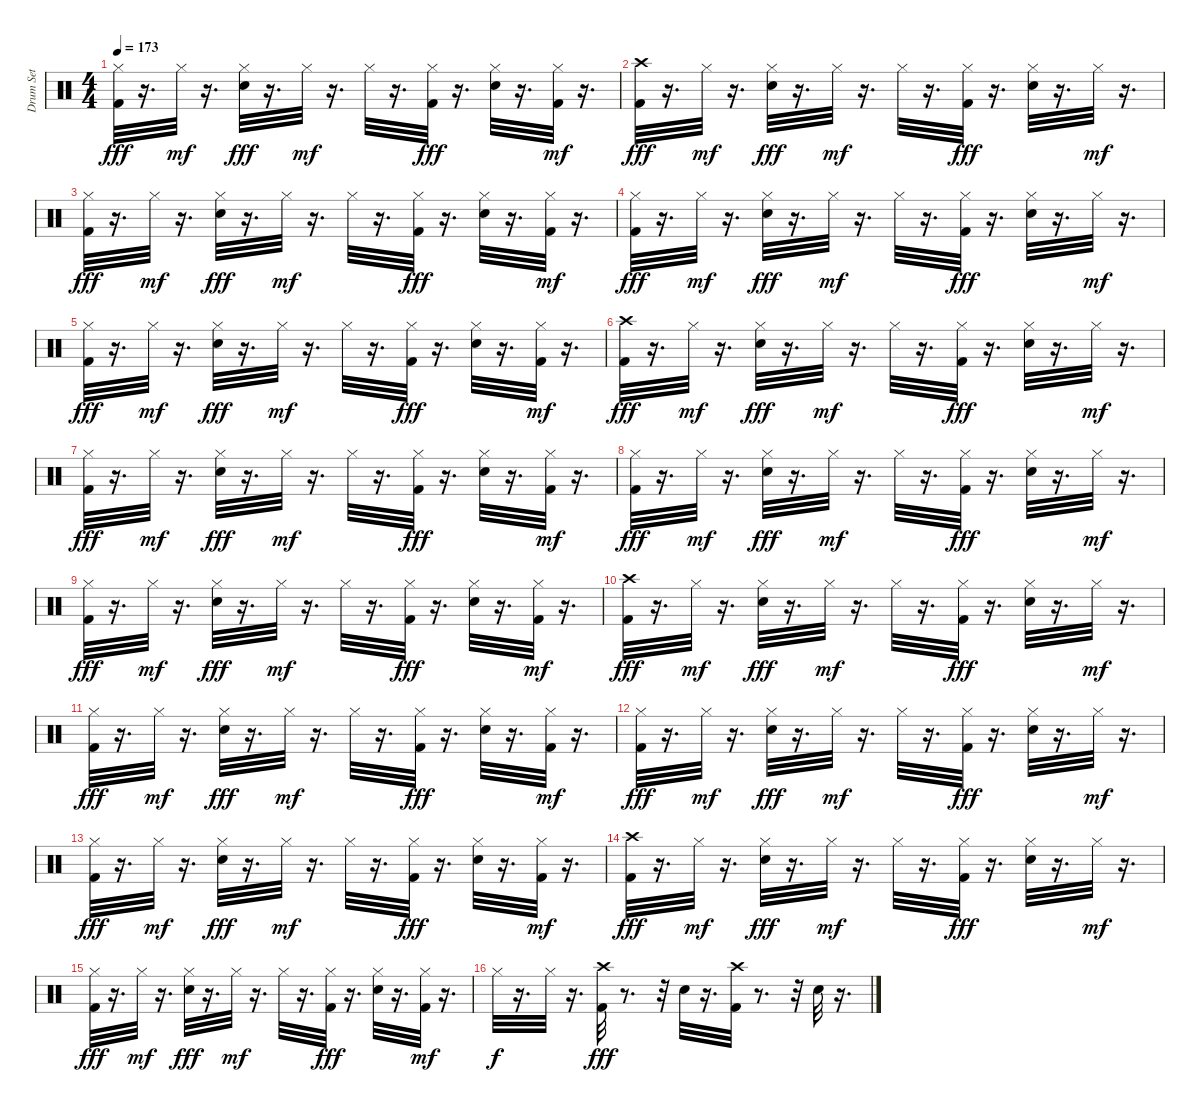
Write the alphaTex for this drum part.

\track ("Drum Set" "Drum Set") {instrument percussion}
\staff {score}
\articulation defaults
\ts (4 4)
\tempo 173
\clef neutral
\ks c
("Hi-Hat (closed)" "Kick (hit) 2").32{dy fff} r.16{d} "Hi-Hat (closed)".32{dy mf} r.16{d} ("Hi-Hat (closed)" "Electric Snare (hit)").32{dy fff} r.16{d} "Hi-Hat (closed)".32{dy mf} r.16{d} "Hi-Hat (closed)".32 r.16{d} ("Hi-Hat (closed)" "Kick (hit) 2").32{dy fff} r.16{d} ("Hi-Hat (closed)" "Electric Snare (hit)").32 r.16{d} ("Kick (hit) 2" "Hi-Hat (closed)").32{dy mf} r.16{d} |
("Crash high (hit)" "Kick (hit) 2").32{dy fff} r.16{d} "Hi-Hat (closed)".32{dy mf} r.16{d} ("Hi-Hat (closed)" "Electric Snare (hit)").32{dy fff} r.16{d} "Hi-Hat (closed)".32{dy mf} r.16{d} "Hi-Hat (closed)".32 r.16{d} ("Hi-Hat (closed)" "Kick (hit) 2").32{dy fff} r.16{d} ("Hi-Hat (closed)" "Electric Snare (hit)").32 r.16{d} "Hi-Hat (closed)".32{dy mf} r.16{d} |
("Hi-Hat (closed)" "Kick (hit) 2").32{dy fff} r.16{d} "Hi-Hat (closed)".32{dy mf} r.16{d} ("Hi-Hat (closed)" "Electric Snare (hit)").32{dy fff} r.16{d} "Hi-Hat (closed)".32{dy mf} r.16{d} "Hi-Hat (closed)".32 r.16{d} ("Hi-Hat (closed)" "Kick (hit) 2").32{dy fff} r.16{d} ("Hi-Hat (closed)" "Electric Snare (hit)").32 r.16{d} ("Kick (hit) 2" "Hi-Hat (closed)").32{dy mf} r.16{d} |
("Hi-Hat (closed)" "Kick (hit) 2").32{dy fff} r.16{d} "Hi-Hat (closed)".32{dy mf} r.16{d} ("Hi-Hat (closed)" "Electric Snare (hit)").32{dy fff} r.16{d} "Hi-Hat (closed)".32{dy mf} r.16{d} "Hi-Hat (closed)".32 r.16{d} ("Hi-Hat (closed)" "Kick (hit) 2").32{dy fff} r.16{d} ("Hi-Hat (closed)" "Electric Snare (hit)").32 r.16{d} "Hi-Hat (closed)".32{dy mf} r.16{d} |
("Hi-Hat (closed)" "Kick (hit) 2").32{dy fff} r.16{d} "Hi-Hat (closed)".32{dy mf} r.16{d} ("Hi-Hat (closed)" "Electric Snare (hit)").32{dy fff} r.16{d} "Hi-Hat (closed)".32{dy mf} r.16{d} "Hi-Hat (closed)".32 r.16{d} ("Hi-Hat (closed)" "Kick (hit) 2").32{dy fff} r.16{d} ("Hi-Hat (closed)" "Electric Snare (hit)").32 r.16{d} ("Kick (hit) 2" "Hi-Hat (closed)").32{dy mf} r.16{d} |
("Crash high (hit)" "Kick (hit) 2").32{dy fff} r.16{d} "Hi-Hat (closed)".32{dy mf} r.16{d} ("Hi-Hat (closed)" "Electric Snare (hit)").32{dy fff} r.16{d} "Hi-Hat (closed)".32{dy mf} r.16{d} "Hi-Hat (closed)".32 r.16{d} ("Hi-Hat (closed)" "Kick (hit) 2").32{dy fff} r.16{d} ("Hi-Hat (closed)" "Electric Snare (hit)").32 r.16{d} "Hi-Hat (closed)".32{dy mf} r.16{d} |
("Hi-Hat (closed)" "Kick (hit) 2").32{dy fff} r.16{d} "Hi-Hat (closed)".32{dy mf} r.16{d} ("Hi-Hat (closed)" "Electric Snare (hit)").32{dy fff} r.16{d} "Hi-Hat (closed)".32{dy mf} r.16{d} "Hi-Hat (closed)".32 r.16{d} ("Hi-Hat (closed)" "Kick (hit) 2").32{dy fff} r.16{d} ("Hi-Hat (closed)" "Electric Snare (hit)").32 r.16{d} ("Kick (hit) 2" "Hi-Hat (closed)").32{dy mf} r.16{d} |
("Hi-Hat (closed)" "Kick (hit) 2").32{dy fff} r.16{d} "Hi-Hat (closed)".32{dy mf} r.16{d} ("Hi-Hat (closed)" "Electric Snare (hit)").32{dy fff} r.16{d} "Hi-Hat (closed)".32{dy mf} r.16{d} "Hi-Hat (closed)".32 r.16{d} ("Hi-Hat (closed)" "Kick (hit) 2").32{dy fff} r.16{d} ("Hi-Hat (closed)" "Electric Snare (hit)").32 r.16{d} "Hi-Hat (closed)".32{dy mf} r.16{d} |
("Hi-Hat (closed)" "Kick (hit) 2").32{dy fff} r.16{d} "Hi-Hat (closed)".32{dy mf} r.16{d} ("Hi-Hat (closed)" "Electric Snare (hit)").32{dy fff} r.16{d} "Hi-Hat (closed)".32{dy mf} r.16{d} "Hi-Hat (closed)".32 r.16{d} ("Hi-Hat (closed)" "Kick (hit) 2").32{dy fff} r.16{d} ("Hi-Hat (closed)" "Electric Snare (hit)").32 r.16{d} ("Kick (hit) 2" "Hi-Hat (closed)").32{dy mf} r.16{d} |
("Crash high (hit)" "Kick (hit) 2").32{dy fff} r.16{d} "Hi-Hat (closed)".32{dy mf} r.16{d} ("Hi-Hat (closed)" "Electric Snare (hit)").32{dy fff} r.16{d} "Hi-Hat (closed)".32{dy mf} r.16{d} "Hi-Hat (closed)".32 r.16{d} ("Hi-Hat (closed)" "Kick (hit) 2").32{dy fff} r.16{d} ("Hi-Hat (closed)" "Electric Snare (hit)").32 r.16{d} "Hi-Hat (closed)".32{dy mf} r.16{d} |
("Hi-Hat (closed)" "Kick (hit) 2").32{dy fff} r.16{d} "Hi-Hat (closed)".32{dy mf} r.16{d} ("Hi-Hat (closed)" "Electric Snare (hit)").32{dy fff} r.16{d} "Hi-Hat (closed)".32{dy mf} r.16{d} "Hi-Hat (closed)".32 r.16{d} ("Hi-Hat (closed)" "Kick (hit) 2").32{dy fff} r.16{d} ("Hi-Hat (closed)" "Electric Snare (hit)").32 r.16{d} ("Kick (hit) 2" "Hi-Hat (closed)").32{dy mf} r.16{d} |
("Hi-Hat (closed)" "Kick (hit) 2").32{dy fff} r.16{d} "Hi-Hat (closed)".32{dy mf} r.16{d} ("Hi-Hat (closed)" "Electric Snare (hit)").32{dy fff} r.16{d} "Hi-Hat (closed)".32{dy mf} r.16{d} "Hi-Hat (closed)".32 r.16{d} ("Hi-Hat (closed)" "Kick (hit) 2").32{dy fff} r.16{d} ("Hi-Hat (closed)" "Electric Snare (hit)").32 r.16{d} "Hi-Hat (closed)".32{dy mf} r.16{d} |
("Hi-Hat (closed)" "Kick (hit) 2").32{dy fff} r.16{d} "Hi-Hat (closed)".32{dy mf} r.16{d} ("Hi-Hat (closed)" "Electric Snare (hit)").32{dy fff} r.16{d} "Hi-Hat (closed)".32{dy mf} r.16{d} "Hi-Hat (closed)".32 r.16{d} ("Hi-Hat (closed)" "Kick (hit) 2").32{dy fff} r.16{d} ("Hi-Hat (closed)" "Electric Snare (hit)").32 r.16{d} ("Kick (hit) 2" "Hi-Hat (closed)").32{dy mf} r.16{d} |
("Crash high (hit)" "Kick (hit) 2").32{dy fff} r.16{d} "Hi-Hat (closed)".32{dy mf} r.16{d} ("Hi-Hat (closed)" "Electric Snare (hit)").32{dy fff} r.16{d} "Hi-Hat (closed)".32{dy mf} r.16{d} "Hi-Hat (closed)".32 r.16{d} ("Hi-Hat (closed)" "Kick (hit) 2").32{dy fff} r.16{d} ("Hi-Hat (closed)" "Electric Snare (hit)").32 r.16{d} "Hi-Hat (closed)".32{dy mf} r.16{d} |
("Hi-Hat (closed)" "Kick (hit) 2").32{dy fff} r.16{d} "Hi-Hat (closed)".32{dy mf} r.16{d} ("Hi-Hat (closed)" "Electric Snare (hit)").32{dy fff} r.16{d} "Hi-Hat (closed)".32{dy mf} r.16{d} "Hi-Hat (closed)".32 r.16{d} ("Hi-Hat (closed)" "Kick (hit) 2").32{dy fff} r.16{d} ("Hi-Hat (closed)" "Electric Snare (hit)").32 r.16{d} ("Kick (hit) 2" "Hi-Hat (closed)").32{dy mf} r.16{d} |
"Hi-Hat (closed)".32{dy f} r.16{d} "Hi-Hat (closed)".32 r.16{d} ("Crash high (hit)" "Kick (hit) 2").32{dy fff} r.8{d} r.32 "Electric Snare (hit)".32 r.16{d} ("Crash high (hit)" "Kick (hit) 2").32 r.8{d} r.32 "Electric Snare (hit)".32 r.16{d}
